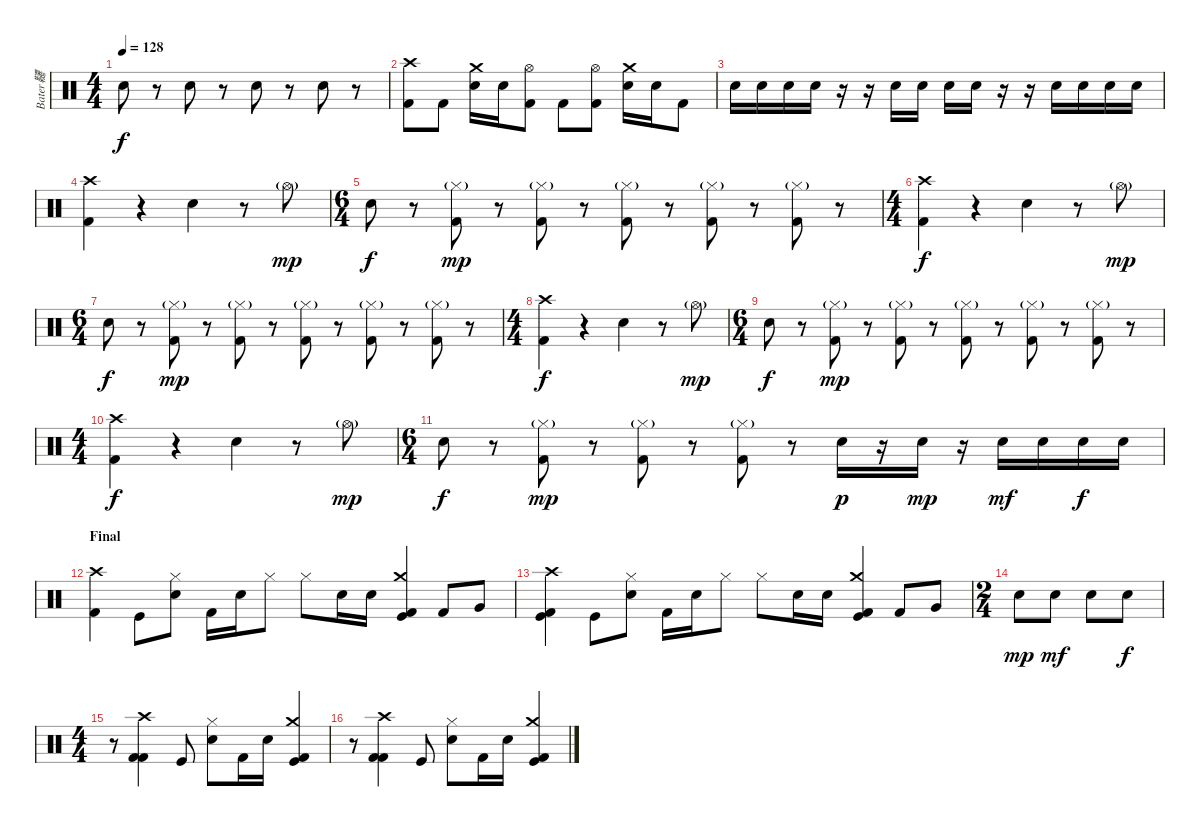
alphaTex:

\track ("Bater韆" "Bater韆") {instrument percussion}
\staff {score}
\articulation defaults
\ts (4 4)
\tempo 128
\clef neutral
\ks c "Electric Snare (hit)".8{dy f}
r.8 "Electric Snare (hit)".8 r.8 "Electric Snare (hit)".8 r.8 "Electric Snare (hit)".8 r.8 |
("Crash high (hit)" "Kick (hit) 2").8 "Kick (hit) 2".8 ("Crash medium (hit)" "Electric Snare (hit)").16 "Electric Snare (hit)".16 ("Hi-Hat (open)" "Kick (hit) 2").8 "Kick (hit) 2".8 ("Hi-Hat (open)" "Kick (hit) 2").8 ("Crash medium (hit)" "Electric Snare (hit)").16 "Electric Snare (hit)".16 "Kick (hit) 2".8 |
"Electric Snare (hit)".16 "Electric Snare (hit)".16 "Electric Snare (hit)".16 "Electric Snare (hit)".16 r.16 r.16 "Electric Snare (hit)".16 "Electric Snare (hit)".16 "Electric Snare (hit)".16 "Electric Snare (hit)".16 r.16 r.16 "Electric Snare (hit)".16 "Electric Snare (hit)".16 "Electric Snare (hit)".16 "Electric Snare (hit)".16 |
("Crash high (hit)" "Kick (hit) 2").4 r.4 "Electric Snare (hit)".4 r.8 "Hi-Hat (open)"{g}.8{dy mp} |
\ts (6 4)
"Electric Snare (hit)".8{dy f} r.8 ("Hi-Hat (closed)"{g} "Kick (hit) 2").8{dy mp} r.8 ("Hi-Hat (closed)"{g} "Kick (hit) 2").8 r.8 ("Hi-Hat (closed)"{g} "Kick (hit) 2").8 r.8 ("Hi-Hat (closed)"{g} "Kick (hit) 2").8 r.8 ("Hi-Hat (closed)"{g} "Kick (hit) 2").8 r.8 |
\ts (4 4)
("Crash high (hit)" "Kick (hit) 2").4{dy f} r.4 "Electric Snare (hit)".4 r.8 "Hi-Hat (open)"{g}.8{dy mp} |
\ts (6 4)
"Electric Snare (hit)".8{dy f} r.8 ("Hi-Hat (closed)"{g} "Kick (hit) 2").8{dy mp} r.8 ("Hi-Hat (closed)"{g} "Kick (hit) 2").8 r.8 ("Hi-Hat (closed)"{g} "Kick (hit) 2").8 r.8 ("Hi-Hat (closed)"{g} "Kick (hit) 2").8 r.8 ("Hi-Hat (closed)"{g} "Kick (hit) 2").8 r.8 |
\ts (4 4)
("Crash high (hit)" "Kick (hit) 2").4{dy f} r.4 "Electric Snare (hit)".4 r.8 "Hi-Hat (open)"{g}.8{dy mp} |
\ts (6 4)
"Electric Snare (hit)".8{dy f} r.8 ("Hi-Hat (closed)"{g} "Kick (hit) 2").8{dy mp} r.8 ("Hi-Hat (closed)"{g} "Kick (hit) 2").8 r.8 ("Hi-Hat (closed)"{g} "Kick (hit) 2").8 r.8 ("Hi-Hat (closed)"{g} "Kick (hit) 2").8 r.8 ("Hi-Hat (closed)"{g} "Kick (hit) 2").8 r.8 |
\ts (4 4)
("Crash high (hit)" "Kick (hit) 2").4{dy f} r.4 "Electric Snare (hit)".4 r.8 "Hi-Hat (open)"{g}.8{dy mp} |
\ts (6 4)
"Electric Snare (hit)".8{dy f} r.8 ("Hi-Hat (closed)"{g} "Kick (hit) 2").8{dy mp} r.8 ("Hi-Hat (closed)"{g} "Kick (hit) 2").8 r.8 ("Hi-Hat (closed)"{g} "Kick (hit) 2").8 r.8 "Electric Snare (hit)".16{dy p} r.16 "Electric Snare (hit)".16{dy mp} r.16 "Electric Snare (hit)".16{dy mf} "Electric Snare (hit)".16 "Electric Snare (hit)".16{dy f} "Electric Snare (hit)".16 |
\section ("" "Final")
("Crash high (hit)" "Kick (hit) 2").4 "Kick (hit)".8 ("Hi-Hat (closed)" "Electric Snare (hit)").8 "Kick (hit) 2".16 "Snare (hit) 2".16 "Hi-Hat (closed)".8 "Hi-Hat (closed)".8 "Electric Snare (hit)".16 "Electric Snare (hit)".16 ("Crash medium (hit)" "Kick (hit)" "Kick (hit) 2").4 "Kick (hit) 2".8 "Very Low Tom (hit)".8 |
("Crash high (hit)" "Kick (hit)" "Kick (hit) 2").4 "Kick (hit)".8 ("Hi-Hat (closed)" "Electric Snare (hit)").8 "Kick (hit) 2".16 "Snare (hit) 2".16 "Hi-Hat (closed)".8 "Hi-Hat (closed)".8 "Electric Snare (hit)".16 "Electric Snare (hit)".16 ("Crash medium (hit)" "Kick (hit)" "Kick (hit) 2").4 "Kick (hit) 2".8 "Very Low Tom (hit)".8 |
\ts (2 4)
"Electric Snare (hit)".8{dy mp} "Electric Snare (hit)".8{dy mf} "Electric Snare (hit)".8 "Electric Snare (hit)".8{dy f} |
\ts (4 4)
r.8 ("Crash high (hit)" "Kick (hit) 2" "Kick (hit) 2").4 "Kick (hit)".8 ("Hi-Hat (closed)" "Electric Snare (hit)").8 "Kick (hit) 2".16 "Snare (hit) 2".16 ("Crash medium (hit)" "Kick (hit)" "Kick (hit) 2").4 |
r.8 ("Crash high (hit)" "Kick (hit) 2" "Kick (hit) 2").4 "Kick (hit)".8 ("Hi-Hat (closed)" "Electric Snare (hit)").8 "Kick (hit) 2".16 "Snare (hit) 2".16 ("Crash medium (hit)" "Kick (hit)" "Kick (hit) 2").4
